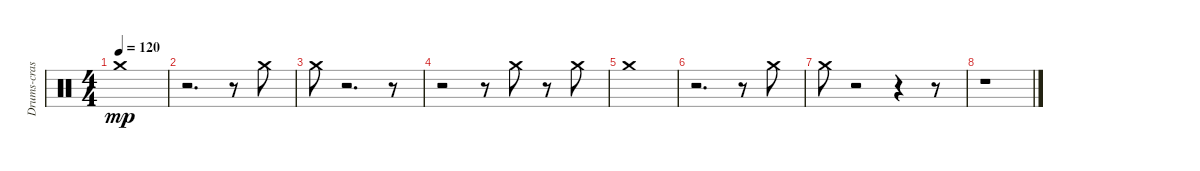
\track ("Drums-crash cymbal 2" "Drums-cras") {instrument percussion}
\staff {score}
\articulation defaults
\ts (4 4)
\tempo 120
\clef neutral
\ks c "Crash medium (hit)".1{dy mp}
|
r.2{d} r.8 "Crash medium (hit)".8 |
"Crash medium (hit)".8 r.2{d} r.8 |
r.2 r.8 "Crash medium (hit)".8 r.8 "Crash medium (hit)".8 |
"Crash medium (hit)".1 |
r.2{d} r.8 "Crash medium (hit)".8 |
"Crash medium (hit)".8 r.2 r.4 r.8 |
r.1
